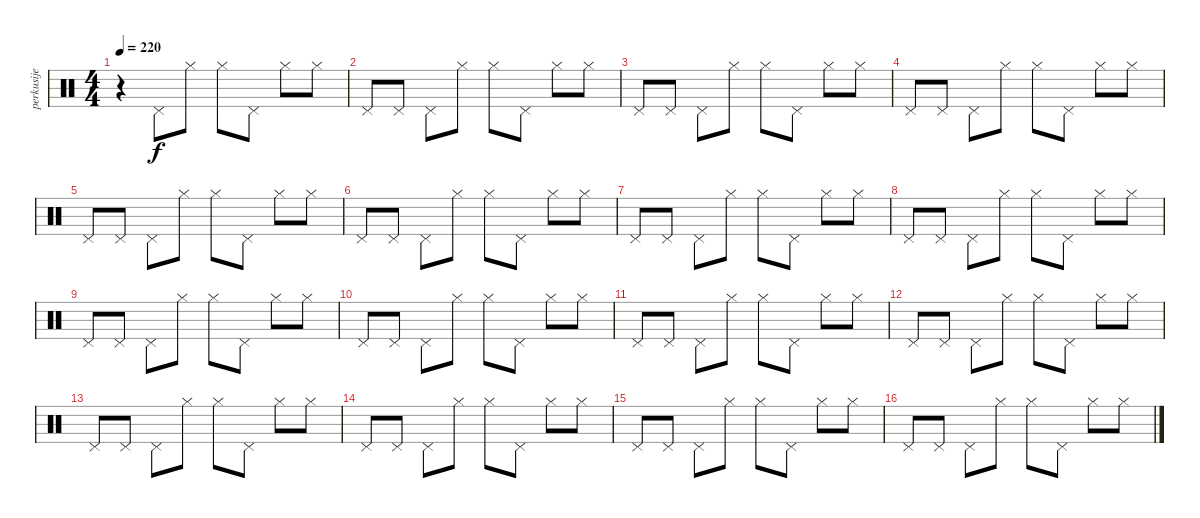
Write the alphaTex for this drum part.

\track ("perkusije" "perkusije") {instrument percussion}
\staff {score}
\articulation defaults
\ts (4 4)
\tempo 220
\clef neutral
\ks c
r.4{dy f} "Pedal Hi-Hat (hit)".8 "Hi-Hat (closed)".8 "Hi-Hat (closed)".8 "Pedal Hi-Hat (hit)".8 "Hi-Hat (closed)".8 "Hi-Hat (closed)".8 |
"Pedal Hi-Hat (hit)".8 "Pedal Hi-Hat (hit)".8 "Pedal Hi-Hat (hit)".8 "Hi-Hat (closed)".8 "Hi-Hat (closed)".8 "Pedal Hi-Hat (hit)".8 "Hi-Hat (closed)".8 "Hi-Hat (closed)".8 |
"Pedal Hi-Hat (hit)".8 "Pedal Hi-Hat (hit)".8 "Pedal Hi-Hat (hit)".8 "Hi-Hat (closed)".8 "Hi-Hat (closed)".8 "Pedal Hi-Hat (hit)".8 "Hi-Hat (closed)".8 "Hi-Hat (closed)".8 |
"Pedal Hi-Hat (hit)".8 "Pedal Hi-Hat (hit)".8 "Pedal Hi-Hat (hit)".8 "Hi-Hat (closed)".8 "Hi-Hat (closed)".8 "Pedal Hi-Hat (hit)".8 "Hi-Hat (closed)".8 "Hi-Hat (closed)".8 |
"Pedal Hi-Hat (hit)".8 "Pedal Hi-Hat (hit)".8 "Pedal Hi-Hat (hit)".8 "Hi-Hat (closed)".8 "Hi-Hat (closed)".8 "Pedal Hi-Hat (hit)".8 "Hi-Hat (closed)".8 "Hi-Hat (closed)".8 |
"Pedal Hi-Hat (hit)".8 "Pedal Hi-Hat (hit)".8 "Pedal Hi-Hat (hit)".8 "Hi-Hat (closed)".8 "Hi-Hat (closed)".8 "Pedal Hi-Hat (hit)".8 "Hi-Hat (closed)".8 "Hi-Hat (closed)".8 |
"Pedal Hi-Hat (hit)".8 "Pedal Hi-Hat (hit)".8 "Pedal Hi-Hat (hit)".8 "Hi-Hat (closed)".8 "Hi-Hat (closed)".8 "Pedal Hi-Hat (hit)".8 "Hi-Hat (closed)".8 "Hi-Hat (closed)".8 |
"Pedal Hi-Hat (hit)".8 "Pedal Hi-Hat (hit)".8 "Pedal Hi-Hat (hit)".8 "Hi-Hat (closed)".8 "Hi-Hat (closed)".8 "Pedal Hi-Hat (hit)".8 "Hi-Hat (closed)".8 "Hi-Hat (closed)".8 |
"Pedal Hi-Hat (hit)".8 "Pedal Hi-Hat (hit)".8 "Pedal Hi-Hat (hit)".8 "Hi-Hat (closed)".8 "Hi-Hat (closed)".8 "Pedal Hi-Hat (hit)".8 "Hi-Hat (closed)".8 "Hi-Hat (closed)".8 |
"Pedal Hi-Hat (hit)".8 "Pedal Hi-Hat (hit)".8 "Pedal Hi-Hat (hit)".8 "Hi-Hat (closed)".8 "Hi-Hat (closed)".8 "Pedal Hi-Hat (hit)".8 "Hi-Hat (closed)".8 "Hi-Hat (closed)".8 |
"Pedal Hi-Hat (hit)".8 "Pedal Hi-Hat (hit)".8 "Pedal Hi-Hat (hit)".8 "Hi-Hat (closed)".8 "Hi-Hat (closed)".8 "Pedal Hi-Hat (hit)".8 "Hi-Hat (closed)".8 "Hi-Hat (closed)".8 |
"Pedal Hi-Hat (hit)".8 "Pedal Hi-Hat (hit)".8 "Pedal Hi-Hat (hit)".8 "Hi-Hat (closed)".8 "Hi-Hat (closed)".8 "Pedal Hi-Hat (hit)".8 "Hi-Hat (closed)".8 "Hi-Hat (closed)".8 |
"Pedal Hi-Hat (hit)".8 "Pedal Hi-Hat (hit)".8 "Pedal Hi-Hat (hit)".8 "Hi-Hat (closed)".8 "Hi-Hat (closed)".8 "Pedal Hi-Hat (hit)".8 "Hi-Hat (closed)".8 "Hi-Hat (closed)".8 |
"Pedal Hi-Hat (hit)".8 "Pedal Hi-Hat (hit)".8 "Pedal Hi-Hat (hit)".8 "Hi-Hat (closed)".8 "Hi-Hat (closed)".8 "Pedal Hi-Hat (hit)".8 "Hi-Hat (closed)".8 "Hi-Hat (closed)".8 |
"Pedal Hi-Hat (hit)".8 "Pedal Hi-Hat (hit)".8 "Pedal Hi-Hat (hit)".8 "Hi-Hat (closed)".8 "Hi-Hat (closed)".8 "Pedal Hi-Hat (hit)".8 "Hi-Hat (closed)".8 "Hi-Hat (closed)".8 |
"Pedal Hi-Hat (hit)".8 "Pedal Hi-Hat (hit)".8 "Pedal Hi-Hat (hit)".8 "Hi-Hat (closed)".8 "Hi-Hat (closed)".8 "Pedal Hi-Hat (hit)".8 "Hi-Hat (closed)".8 "Hi-Hat (closed)".8
